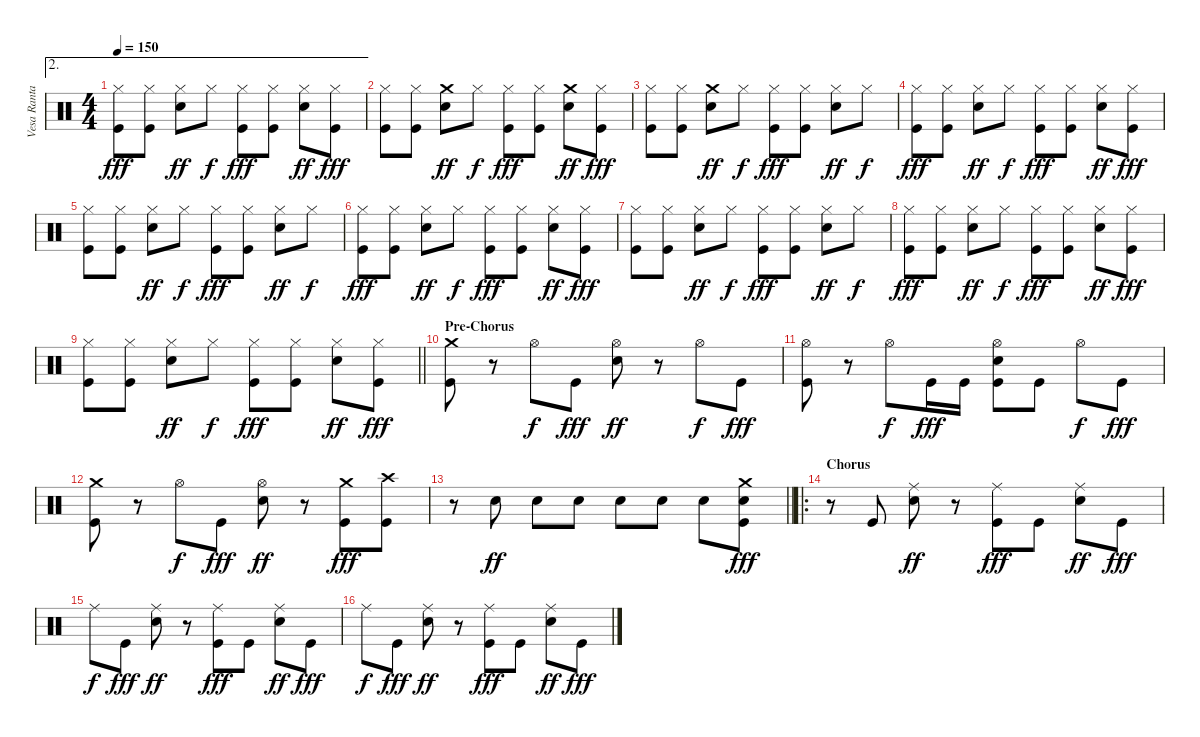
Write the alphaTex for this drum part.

\track ("Vesa Ranta" "Vesa Ranta") {instrument percussion}
\staff {score}
\articulation defaults
\ae 2
\ts (4 4)
\tempo 150
\clef neutral
\ks c
("Hi-Hat (closed)" "Kick (hit)").8{dy fff} ("Hi-Hat (closed)" "Kick (hit)").8 ("Hi-Hat (closed)" "Snare (hit) 2").8{dy ff} "Hi-Hat (closed)".8{dy f} ("Hi-Hat (closed)" "Kick (hit)").8{dy fff} ("Hi-Hat (closed)" "Kick (hit)").8 ("Hi-Hat (closed)" "Snare (hit) 2").8{dy ff} ("Hi-Hat (closed)" "Kick (hit)").8{dy fff} |
("Hi-Hat (closed)" "Kick (hit)").8 ("Hi-Hat (closed)" "Kick (hit)").8 ("Crash medium (hit)" "Snare (hit) 2").8{dy ff} "Hi-Hat (closed)".8{dy f} ("Hi-Hat (closed)" "Kick (hit)").8{dy fff} ("Hi-Hat (closed)" "Kick (hit)").8 ("Crash medium (hit)" "Snare (hit) 2").8{dy ff} ("Hi-Hat (closed)" "Kick (hit)").8{dy fff} |
("Hi-Hat (closed)" "Kick (hit)").8 ("Hi-Hat (closed)" "Kick (hit)").8 ("Crash medium (hit)" "Snare (hit) 2").8{dy ff} "Hi-Hat (closed)".8{dy f} ("Hi-Hat (closed)" "Kick (hit)").8{dy fff} ("Hi-Hat (closed)" "Kick (hit)").8 ("Hi-Hat (closed)" "Snare (hit) 2").8{dy ff} "Hi-Hat (closed)".8{dy f} |
("Hi-Hat (closed)" "Kick (hit)").8{dy fff} ("Hi-Hat (closed)" "Kick (hit)").8 ("Hi-Hat (closed)" "Snare (hit) 2").8{dy ff} "Hi-Hat (closed)".8{dy f} ("Hi-Hat (closed)" "Kick (hit)").8{dy fff} ("Hi-Hat (closed)" "Kick (hit)").8 ("Hi-Hat (closed)" "Snare (hit) 2").8{dy ff} ("Hi-Hat (closed)" "Kick (hit)").8{dy fff} |
("Hi-Hat (closed)" "Kick (hit)").8 ("Hi-Hat (closed)" "Kick (hit)").8 ("Hi-Hat (closed)" "Snare (hit) 2").8{dy ff} "Hi-Hat (closed)".8{dy f} ("Hi-Hat (closed)" "Kick (hit)").8{dy fff} ("Hi-Hat (closed)" "Kick (hit)").8 ("Hi-Hat (closed)" "Snare (hit) 2").8{dy ff} "Hi-Hat (closed)".8{dy f} |
("Hi-Hat (closed)" "Kick (hit)").8{dy fff} ("Hi-Hat (closed)" "Kick (hit)").8 ("Hi-Hat (closed)" "Snare (hit) 2").8{dy ff} "Hi-Hat (closed)".8{dy f} ("Hi-Hat (closed)" "Kick (hit)").8{dy fff} ("Hi-Hat (closed)" "Kick (hit)").8 ("Hi-Hat (closed)" "Snare (hit) 2").8{dy ff} ("Hi-Hat (closed)" "Kick (hit)").8{dy fff} |
("Hi-Hat (closed)" "Kick (hit)").8 ("Hi-Hat (closed)" "Kick (hit)").8 ("Hi-Hat (closed)" "Snare (hit) 2").8{dy ff} "Hi-Hat (closed)".8{dy f} ("Hi-Hat (closed)" "Kick (hit)").8{dy fff} ("Hi-Hat (closed)" "Kick (hit)").8 ("Hi-Hat (closed)" "Snare (hit) 2").8{dy ff} "Hi-Hat (closed)".8{dy f} |
("Hi-Hat (closed)" "Kick (hit)").8{dy fff} ("Hi-Hat (closed)" "Kick (hit)").8 ("Hi-Hat (closed)" "Snare (hit) 2").8{dy ff} "Hi-Hat (closed)".8{dy f} ("Hi-Hat (closed)" "Kick (hit)").8{dy fff} ("Hi-Hat (closed)" "Kick (hit)").8 ("Hi-Hat (closed)" "Snare (hit) 2").8{dy ff} ("Hi-Hat (closed)" "Kick (hit)").8{dy fff} |
\barLineRight lightlight
("Hi-Hat (closed)" "Kick (hit)").8 ("Hi-Hat (closed)" "Kick (hit)").8 ("Hi-Hat (closed)" "Snare (hit) 2").8{dy ff} "Hi-Hat (closed)".8{dy f} ("Hi-Hat (closed)" "Kick (hit)").8{dy fff} ("Hi-Hat (closed)" "Kick (hit)").8 ("Hi-Hat (closed)" "Snare (hit) 2").8{dy ff} ("Hi-Hat (closed)" "Kick (hit)").8{dy fff} |
\section ("" "Pre-Chorus")
("Crash medium (hit)" "Kick (hit)").8 r.8 "Hi-Hat (open)".8{dy f} "Kick (hit)".8{dy fff} ("Hi-Hat (open)" "Snare (hit) 2").8{dy ff} r.8 "Hi-Hat (open)".8{dy f} "Kick (hit)".8{dy fff} |
("Hi-Hat (open)" "Kick (hit)").8 r.8 "Hi-Hat (open)".8{dy f} "Kick (hit)".16{dy fff} "Kick (hit)".16 ("Hi-Hat (open)" "Snare (hit) 2" "Kick (hit)").8 "Kick (hit)".8 "Hi-Hat (open)".8{dy f} "Kick (hit)".8{dy fff} |
("Crash medium (hit)" "Kick (hit)").8 r.8 "Hi-Hat (open)".8{dy f} "Kick (hit)".8{dy fff} ("Hi-Hat (open)" "Snare (hit) 2").8{dy ff} r.8 ("Crash medium (hit)" "Kick (hit)").8{dy fff} ("Crash high (hit)" "Kick (hit)").8 |
\barLineRight lightlight
r.8 "Snare (hit) 2".8{dy ff} "Snare (hit) 2".8 "Snare (hit) 2".8 "Snare (hit) 2".8 "Snare (hit) 2".8 "Snare (hit) 2".8 ("Crash medium (hit)" "Snare (hit) 2" "Kick (hit)").8{dy fff} |
\ro
\section ("" "Chorus")
r.8 "Kick (hit)".8 ("Ride (middle)" "Snare (hit) 2").8{dy ff} r.8 ("Ride (middle)" "Kick (hit)").8{dy fff} "Kick (hit)".8 ("Ride (middle)" "Snare (hit) 2").8{dy ff} "Kick (hit)".8{dy fff} |
"Ride (middle)".8{dy f} "Kick (hit)".8{dy fff} ("Ride (middle)" "Snare (hit) 2").8{dy ff} r.8 ("Ride (middle)" "Kick (hit)").8{dy fff} "Kick (hit)".8 ("Ride (middle)" "Snare (hit) 2").8{dy ff} "Kick (hit)".8{dy fff} |
"Ride (middle)".8{dy f} "Kick (hit)".8{dy fff} ("Ride (middle)" "Snare (hit) 2").8{dy ff} r.8 ("Ride (middle)" "Kick (hit)").8{dy fff} "Kick (hit)".8 ("Ride (middle)" "Snare (hit) 2").8{dy ff} "Kick (hit)".8{dy fff}
